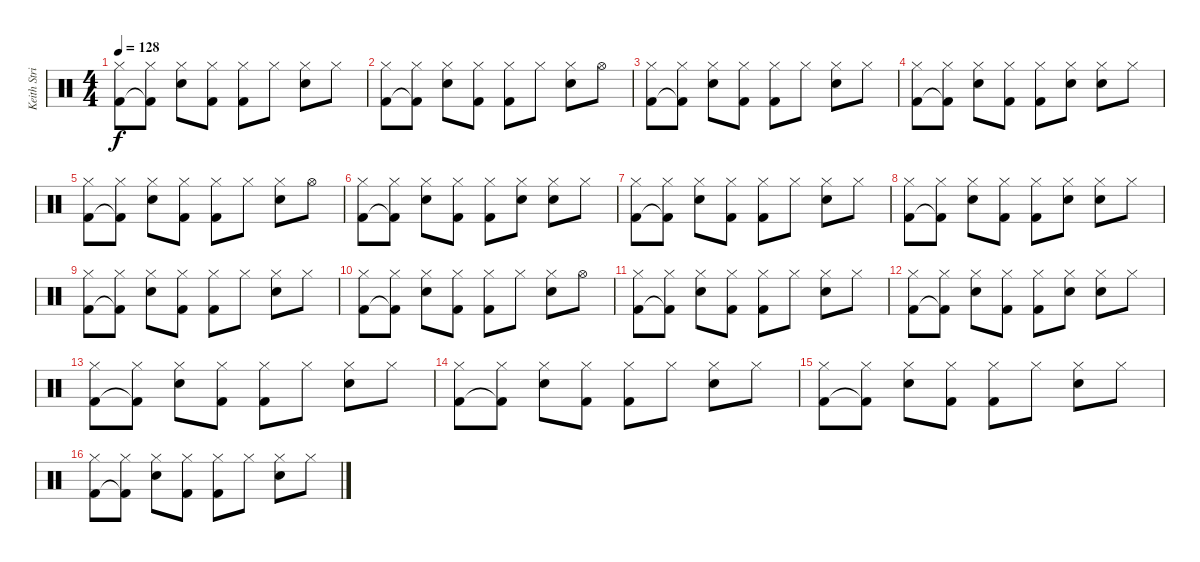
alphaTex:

\track ("Keith Strickland (drums)" "Keith Stri") {instrument percussion}
\staff {score}
\articulation defaults
\ts (4 4)
\tempo 128
\clef neutral
\ks c
("Hi-Hat (closed)" "Kick (hit) 2").8{dy f} ("Hi-Hat (closed)" "Kick (hit) 2"{t}).8 ("Hi-Hat (closed)" "Snare (hit) 2").8 ("Hi-Hat (closed)" "Kick (hit) 2").8 ("Hi-Hat (closed)" "Kick (hit) 2").8 "Hi-Hat (closed)".8 ("Hi-Hat (closed)" "Snare (hit) 2").8 "Hi-Hat (closed)".8 |
("Hi-Hat (closed)" "Kick (hit) 2").8 ("Hi-Hat (closed)" "Kick (hit) 2"{t}).8 ("Hi-Hat (closed)" "Snare (hit) 2").8 ("Hi-Hat (closed)" "Kick (hit) 2").8 ("Hi-Hat (closed)" "Kick (hit) 2").8 "Hi-Hat (closed)".8 ("Hi-Hat (closed)" "Snare (hit) 2").8 "Hi-Hat (open)".8 |
("Hi-Hat (closed)" "Kick (hit) 2").8 ("Hi-Hat (closed)" "Kick (hit) 2"{t}).8 ("Hi-Hat (closed)" "Snare (hit) 2").8 ("Hi-Hat (closed)" "Kick (hit) 2").8 ("Hi-Hat (closed)" "Kick (hit) 2").8 "Hi-Hat (closed)".8 ("Hi-Hat (closed)" "Snare (hit) 2").8 "Hi-Hat (closed)".8 |
("Hi-Hat (closed)" "Kick (hit) 2").8 ("Hi-Hat (closed)" "Kick (hit) 2"{t}).8 ("Hi-Hat (closed)" "Snare (hit) 2").8 ("Hi-Hat (closed)" "Kick (hit) 2").8 ("Hi-Hat (closed)" "Kick (hit) 2").8 ("Hi-Hat (closed)" "Snare (hit) 2").8 ("Hi-Hat (closed)" "Snare (hit) 2").8 "Hi-Hat (closed)".8 |
("Hi-Hat (closed)" "Kick (hit) 2").8 ("Hi-Hat (closed)" "Kick (hit) 2"{t}).8 ("Hi-Hat (closed)" "Snare (hit) 2").8 ("Hi-Hat (closed)" "Kick (hit) 2").8 ("Hi-Hat (closed)" "Kick (hit) 2").8 "Hi-Hat (closed)".8 ("Hi-Hat (closed)" "Snare (hit) 2").8 "Hi-Hat (open)".8 |
("Hi-Hat (closed)" "Kick (hit) 2").8 ("Hi-Hat (closed)" "Kick (hit) 2"{t}).8 ("Hi-Hat (closed)" "Snare (hit) 2").8 ("Hi-Hat (closed)" "Kick (hit) 2").8 ("Hi-Hat (closed)" "Kick (hit) 2").8 ("Hi-Hat (closed)" "Snare (hit) 2").8 ("Hi-Hat (closed)" "Snare (hit) 2").8 "Hi-Hat (closed)".8 |
("Hi-Hat (closed)" "Kick (hit) 2").8 ("Hi-Hat (closed)" "Kick (hit) 2"{t}).8 ("Hi-Hat (closed)" "Snare (hit) 2").8 ("Hi-Hat (closed)" "Kick (hit) 2").8 ("Hi-Hat (closed)" "Kick (hit) 2").8 "Hi-Hat (closed)".8 ("Hi-Hat (closed)" "Snare (hit) 2").8 "Hi-Hat (closed)".8 |
("Hi-Hat (closed)" "Kick (hit) 2").8 ("Hi-Hat (closed)" "Kick (hit) 2"{t}).8 ("Hi-Hat (closed)" "Snare (hit) 2").8 ("Hi-Hat (closed)" "Kick (hit) 2").8 ("Hi-Hat (closed)" "Kick (hit) 2").8 ("Hi-Hat (closed)" "Snare (hit) 2").8 ("Hi-Hat (closed)" "Snare (hit) 2").8 "Hi-Hat (closed)".8 |
("Hi-Hat (closed)" "Kick (hit) 2").8 ("Hi-Hat (closed)" "Kick (hit) 2"{t}).8 ("Hi-Hat (closed)" "Snare (hit) 2").8 ("Hi-Hat (closed)" "Kick (hit) 2").8 ("Hi-Hat (closed)" "Kick (hit) 2").8 "Hi-Hat (closed)".8 ("Hi-Hat (closed)" "Snare (hit) 2").8 "Hi-Hat (closed)".8 |
("Hi-Hat (closed)" "Kick (hit) 2").8 ("Hi-Hat (closed)" "Kick (hit) 2"{t}).8 ("Hi-Hat (closed)" "Snare (hit) 2").8 ("Hi-Hat (closed)" "Kick (hit) 2").8 ("Hi-Hat (closed)" "Kick (hit) 2").8 "Hi-Hat (closed)".8 ("Hi-Hat (closed)" "Snare (hit) 2").8 "Hi-Hat (open)".8 |
("Hi-Hat (closed)" "Kick (hit) 2").8 ("Hi-Hat (closed)" "Kick (hit) 2"{t}).8 ("Hi-Hat (closed)" "Snare (hit) 2").8 ("Hi-Hat (closed)" "Kick (hit) 2").8 ("Hi-Hat (closed)" "Kick (hit) 2").8 "Hi-Hat (closed)".8 ("Hi-Hat (closed)" "Snare (hit) 2").8 "Hi-Hat (closed)".8 |
("Hi-Hat (closed)" "Kick (hit) 2").8 ("Hi-Hat (closed)" "Kick (hit) 2"{t}).8 ("Hi-Hat (closed)" "Snare (hit) 2").8 ("Hi-Hat (closed)" "Kick (hit) 2").8 ("Hi-Hat (closed)" "Kick (hit) 2").8 ("Hi-Hat (closed)" "Snare (hit) 2").8 ("Hi-Hat (closed)" "Snare (hit) 2").8 "Hi-Hat (closed)".8 |
("Hi-Hat (closed)" "Kick (hit) 2").8 ("Hi-Hat (closed)" "Kick (hit) 2"{t}).8 ("Hi-Hat (closed)" "Snare (hit) 2").8 ("Hi-Hat (closed)" "Kick (hit) 2").8 ("Hi-Hat (closed)" "Kick (hit) 2").8 "Hi-Hat (closed)".8 ("Hi-Hat (closed)" "Snare (hit) 2").8 "Hi-Hat (closed)".8 |
("Hi-Hat (closed)" "Kick (hit) 2").8 ("Hi-Hat (closed)" "Kick (hit) 2"{t}).8 ("Hi-Hat (closed)" "Snare (hit) 2").8 ("Hi-Hat (closed)" "Kick (hit) 2").8 ("Hi-Hat (closed)" "Kick (hit) 2").8 "Hi-Hat (closed)".8 ("Hi-Hat (closed)" "Snare (hit) 2").8 "Hi-Hat (closed)".8 |
("Hi-Hat (closed)" "Kick (hit) 2").8 ("Hi-Hat (closed)" "Kick (hit) 2"{t}).8 ("Hi-Hat (closed)" "Snare (hit) 2").8 ("Hi-Hat (closed)" "Kick (hit) 2").8 ("Hi-Hat (closed)" "Kick (hit) 2").8 "Hi-Hat (closed)".8 ("Hi-Hat (closed)" "Snare (hit) 2").8 "Hi-Hat (closed)".8 |
("Hi-Hat (closed)" "Kick (hit) 2").8 ("Hi-Hat (closed)" "Kick (hit) 2"{t}).8 ("Hi-Hat (closed)" "Snare (hit) 2").8 ("Hi-Hat (closed)" "Kick (hit) 2").8 ("Hi-Hat (closed)" "Kick (hit) 2").8 "Hi-Hat (closed)".8 ("Hi-Hat (closed)" "Snare (hit) 2").8 "Hi-Hat (closed)".8
